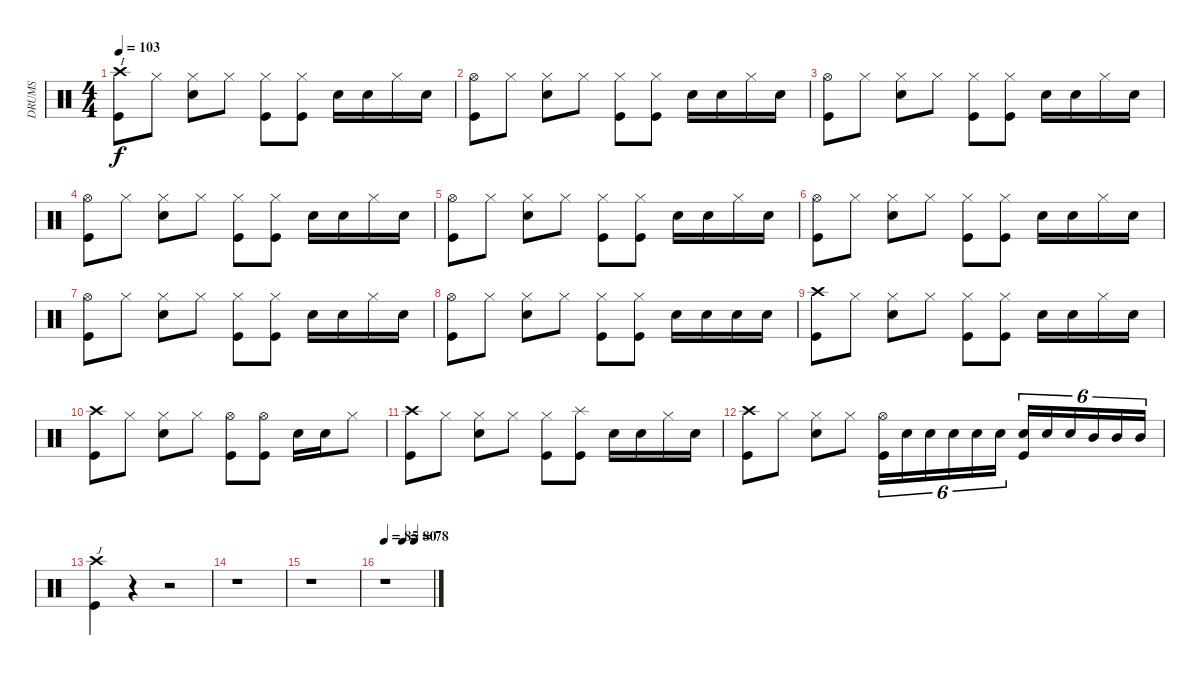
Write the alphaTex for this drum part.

\track ("DRUMS" "DRUMS") {instrument percussion}
\staff {score}
\articulation defaults
\ts (4 4)
\tempo 103
\clef neutral
\ks c
("Crash high (hit)" "Kick (hit)").8{txt "I" dy f} "Hi-Hat (closed)".8 ("Hi-Hat (closed)" "Electric Snare (hit)").8 "Hi-Hat (closed)".8 ("Hi-Hat (closed)" "Kick (hit)").8 ("Hi-Hat (closed)" "Kick (hit)").8 "Electric Snare (hit)".16 "Electric Snare (hit)".16 "Hi-Hat (closed)".16 "Electric Snare (hit)".16 |
("Hi-Hat (open)" "Kick (hit)").8 "Hi-Hat (closed)".8 ("Hi-Hat (closed)" "Electric Snare (hit)").8 "Hi-Hat (closed)".8 ("Hi-Hat (closed)" "Kick (hit)").8 ("Hi-Hat (closed)" "Kick (hit)").8 "Electric Snare (hit)".16 "Electric Snare (hit)".16 "Hi-Hat (closed)".16 "Electric Snare (hit)".16 |
("Hi-Hat (open)" "Kick (hit)").8 "Hi-Hat (closed)".8 ("Hi-Hat (closed)" "Electric Snare (hit)").8 "Hi-Hat (closed)".8 ("Hi-Hat (closed)" "Kick (hit)").8 ("Hi-Hat (closed)" "Kick (hit)").8 "Electric Snare (hit)".16 "Electric Snare (hit)".16 "Hi-Hat (closed)".16 "Electric Snare (hit)".16 |
("Hi-Hat (open)" "Kick (hit)").8 "Hi-Hat (closed)".8 ("Hi-Hat (closed)" "Electric Snare (hit)").8 "Hi-Hat (closed)".8 ("Hi-Hat (closed)" "Kick (hit)").8 ("Hi-Hat (closed)" "Kick (hit)").8 "Electric Snare (hit)".16 "Electric Snare (hit)".16 "Hi-Hat (closed)".16 "Electric Snare (hit)".16 |
("Hi-Hat (open)" "Kick (hit)").8 "Hi-Hat (closed)".8 ("Hi-Hat (closed)" "Electric Snare (hit)").8 "Hi-Hat (closed)".8 ("Hi-Hat (closed)" "Kick (hit)").8 ("Hi-Hat (closed)" "Kick (hit)").8 "Electric Snare (hit)".16 "Electric Snare (hit)".16 "Hi-Hat (closed)".16 "Electric Snare (hit)".16 |
("Hi-Hat (open)" "Kick (hit)").8 "Hi-Hat (closed)".8 ("Hi-Hat (closed)" "Electric Snare (hit)").8 "Hi-Hat (closed)".8 ("Hi-Hat (closed)" "Kick (hit)").8 ("Hi-Hat (closed)" "Kick (hit)").8 "Electric Snare (hit)".16 "Electric Snare (hit)".16 "Hi-Hat (closed)".16 "Electric Snare (hit)".16 |
("Hi-Hat (open)" "Kick (hit)").8 "Hi-Hat (closed)".8 ("Hi-Hat (closed)" "Electric Snare (hit)").8 "Hi-Hat (closed)".8 ("Hi-Hat (closed)" "Kick (hit)").8 ("Hi-Hat (closed)" "Kick (hit)").8 "Electric Snare (hit)".16 "Electric Snare (hit)".16 "Hi-Hat (closed)".16 "Electric Snare (hit)".16 |
("Hi-Hat (open)" "Kick (hit)").8 "Hi-Hat (closed)".8 ("Hi-Hat (closed)" "Electric Snare (hit)").8 "Hi-Hat (closed)".8 ("Hi-Hat (closed)" "Kick (hit)").8 ("Hi-Hat (closed)" "Kick (hit)").8 "Electric Snare (hit)".16 "Electric Snare (hit)".16 "Electric Snare (hit)".16 "Electric Snare (hit)".16 |
("Crash high (hit)" "Kick (hit)").8 "Hi-Hat (closed)".8 ("Hi-Hat (closed)" "Electric Snare (hit)").8 "Hi-Hat (closed)".8 ("Hi-Hat (closed)" "Kick (hit)").8 ("Hi-Hat (closed)" "Kick (hit)").8 "Electric Snare (hit)".16 "Electric Snare (hit)".16 "Hi-Hat (closed)".16 "Electric Snare (hit)".16 |
("Crash high (hit)" "Kick (hit)").8 "Hi-Hat (closed)".8 ("Hi-Hat (closed)" "Electric Snare (hit)").8 "Hi-Hat (closed)".8 ("Hi-Hat (open)" "Kick (hit)").8 ("Hi-Hat (open)" "Kick (hit)").8 "Electric Snare (hit)".16 "Electric Snare (hit)".16 "Hi-Hat (closed)".8 |
("Crash high (hit)" "Kick (hit)").8 "Hi-Hat (closed)".8 ("Hi-Hat (closed)" "Electric Snare (hit)").8 "Hi-Hat (closed)".8 ("Hi-Hat (closed)" "Kick (hit)").8 ("Splash (hit)" "Kick (hit)").8 "Electric Snare (hit)".16 "Electric Snare (hit)".16 "Hi-Hat (closed)".16 "Electric Snare (hit)".16 |
("Crash high (hit)" "Kick (hit)").8 "Hi-Hat (closed)".8 ("Hi-Hat (closed)" "Electric Snare (hit)").8 "Hi-Hat (closed)".8 ("Hi-Hat (open)" "Kick (hit)").16{tu (6 4)} "Electric Snare (hit)".16{tu (6 4)} "Electric Snare (hit)".16{tu (6 4)} "Electric Snare (hit)".16{tu (6 4)} "Electric Snare (hit)".16{tu (6 4)} "Electric Snare (hit)".16{tu (6 4)} ("Electric Snare (hit)" "Kick (hit)").16{tu (6 4)} "Electric Snare (hit)".16{tu (6 4)} "Electric Snare (hit)".16{tu (6 4)} "Mid Tom (hit)".16{tu (6 4)} "Mid Tom (hit)".16{tu (6 4)} "Mid Tom (hit)".16{tu (6 4)} |
("Crash high (hit)" "Kick (hit)").4{txt "J"} r.4 r.2 |
r.1 |
r.1 |
\tempo 85
\tempo (80 0.375)
\tempo (78 0.625)
r.1
